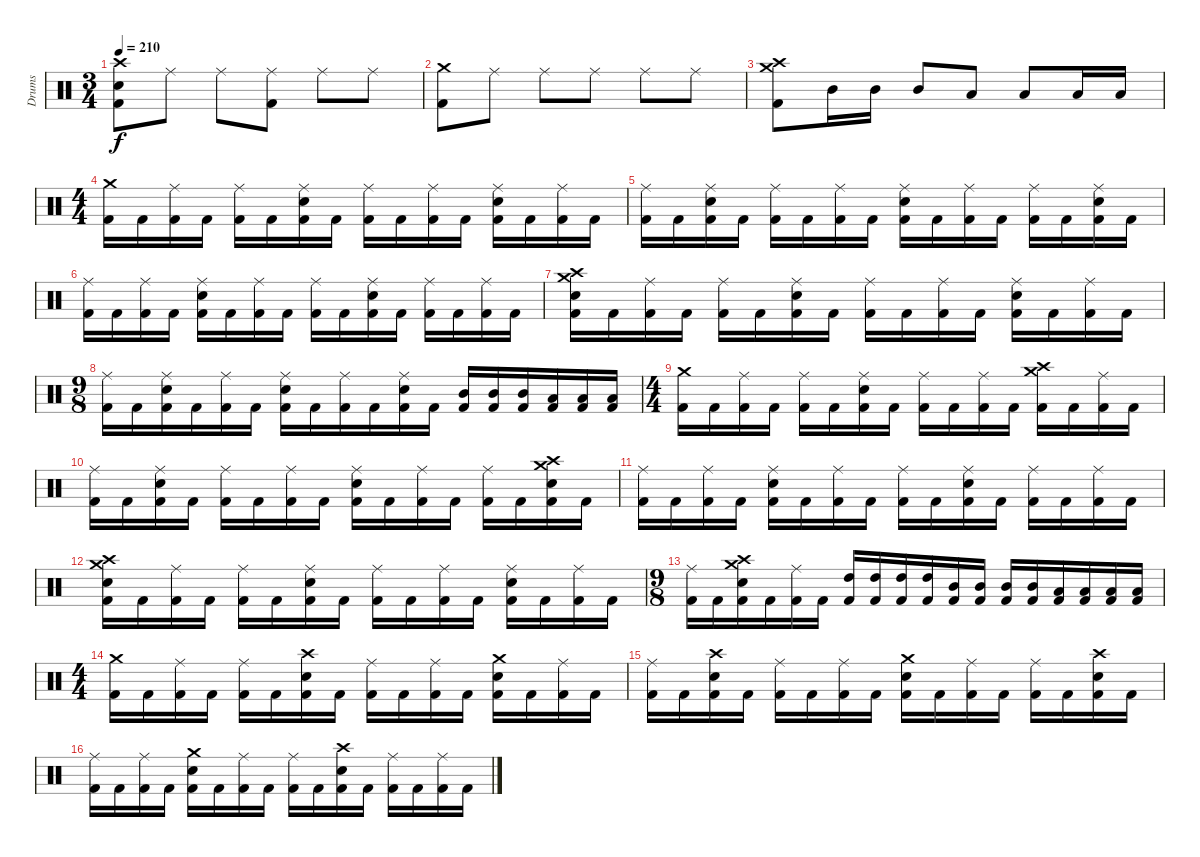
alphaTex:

\track ("Drums" "Drums") {instrument percussion}
\staff {score}
\articulation defaults
\ts (3 4)
\tempo 210
\clef neutral
\ks c
("Kick (hit) 2" "Electric Snare (hit)" "Crash high (hit)").8{dy f} "Ride (middle)".8 "Ride (middle)".8 ("Kick (hit) 2" "Ride (middle)").8 "Ride (middle)".8 "Ride (middle)".8 |
("Kick (hit) 2" "Crash medium (hit)").8 "Ride (middle)".8 "Ride (middle)".8 "Ride (middle)".8 "Ride (middle)".8 "Ride (middle)".8 |
("Kick (hit) 2" "Crash high (hit)" "Crash medium (hit)").8 "Mid Tom (hit)".16 "Mid Tom (hit)".16 "Mid Tom (hit)".8 "Low Tom (hit)".8 "Low Tom (hit)".8 "Low Tom (hit)".16 "Low Tom (hit)".16 |
\ts (4 4)
("Kick (hit) 2" "Crash medium (hit)").16 "Kick (hit) 2".16 ("Kick (hit) 2" "Ride (middle)").16 "Kick (hit) 2".16 ("Kick (hit) 2" "Ride (middle)").16 "Kick (hit) 2".16 ("Kick (hit) 2" "Electric Snare (hit)" "Ride (middle)").16 "Kick (hit) 2".16 ("Kick (hit) 2" "Ride (middle)").16 "Kick (hit) 2".16 ("Kick (hit) 2" "Ride (middle)").16 "Kick (hit) 2".16 ("Kick (hit) 2" "Electric Snare (hit)" "Ride (middle)").16 "Kick (hit) 2".16 ("Kick (hit) 2" "Ride (middle)").16 "Kick (hit) 2".16 |
("Kick (hit) 2" "Ride (middle)").16 "Kick (hit) 2".16 ("Kick (hit) 2" "Electric Snare (hit)" "Ride (middle)").16 "Kick (hit) 2".16 ("Kick (hit) 2" "Ride (middle)").16 "Kick (hit) 2".16 ("Kick (hit) 2" "Ride (middle)").16 "Kick (hit) 2".16 ("Kick (hit) 2" "Electric Snare (hit)" "Ride (middle)").16 "Kick (hit) 2".16 ("Kick (hit) 2" "Ride (middle)").16 "Kick (hit) 2".16 ("Kick (hit) 2" "Ride (middle)").16 "Kick (hit) 2".16 ("Kick (hit) 2" "Electric Snare (hit)" "Ride (middle)").16 "Kick (hit) 2".16 |
("Kick (hit) 2" "Ride (middle)").16 "Kick (hit) 2".16 ("Kick (hit) 2" "Ride (middle)").16 "Kick (hit) 2".16 ("Kick (hit) 2" "Electric Snare (hit)" "Ride (middle)").16 "Kick (hit) 2".16 ("Kick (hit) 2" "Ride (middle)").16 "Kick (hit) 2".16 ("Kick (hit) 2" "Ride (middle)").16 "Kick (hit) 2".16 ("Kick (hit) 2" "Electric Snare (hit)" "Ride (middle)").16 "Kick (hit) 2".16 ("Kick (hit) 2" "Ride (middle)").16 "Kick (hit) 2".16 ("Kick (hit) 2" "Ride (middle)").16 "Kick (hit) 2".16 |
("Kick (hit) 2" "Electric Snare (hit)" "Crash high (hit)" "Crash medium (hit)").16 "Kick (hit) 2".16 ("Kick (hit) 2" "Ride (middle)").16 "Kick (hit) 2".16 ("Kick (hit) 2" "Ride (middle)").16 "Kick (hit) 2".16 ("Kick (hit) 2" "Electric Snare (hit)" "Ride (middle)").16 "Kick (hit) 2".16 ("Kick (hit) 2" "Ride (middle)").16 "Kick (hit) 2".16 ("Kick (hit) 2" "Ride (middle)").16 "Kick (hit) 2".16 ("Kick (hit) 2" "Electric Snare (hit)" "Ride (middle)").16 "Kick (hit) 2".16 ("Kick (hit) 2" "Ride (middle)").16 "Kick (hit) 2".16 |
\ts (9 8)
("Kick (hit) 2" "Ride (middle)").16 "Kick (hit) 2".16 ("Kick (hit) 2" "Electric Snare (hit)" "Ride (middle)").16 "Kick (hit) 2".16 ("Kick (hit) 2" "Ride (middle)").16 "Kick (hit) 2".16 ("Kick (hit) 2" "Electric Snare (hit)" "Ride (middle)").16 "Kick (hit) 2".16 ("Kick (hit) 2" "Ride (middle)").16 "Kick (hit) 2".16 ("Kick (hit) 2" "Electric Snare (hit)" "Ride (middle)").16 "Kick (hit) 2".16 ("Kick (hit) 2" "Mid Tom (hit)").16 ("Kick (hit) 2" "Mid Tom (hit)").16 ("Kick (hit) 2" "Mid Tom (hit)").16 ("Kick (hit) 2" "Low Tom (hit)").16 ("Kick (hit) 2" "Low Tom (hit)").16 ("Kick (hit) 2" "Low Tom (hit)").16 |
\ts (4 4)
("Kick (hit) 2" "Crash medium (hit)").16 "Kick (hit) 2".16 ("Kick (hit) 2" "Ride (middle)").16 "Kick (hit) 2".16 ("Kick (hit) 2" "Ride (middle)").16 "Kick (hit) 2".16 ("Kick (hit) 2" "Electric Snare (hit)" "Ride (middle)").16 "Kick (hit) 2".16 ("Kick (hit) 2" "Ride (middle)").16 "Kick (hit) 2".16 ("Kick (hit) 2" "Ride (middle)").16 "Kick (hit) 2".16 ("Kick (hit) 2" "Crash high (hit)" "Crash medium (hit)").16 "Kick (hit) 2".16 ("Kick (hit) 2" "Ride (middle)").16 "Kick (hit) 2".16 |
("Kick (hit) 2" "Ride (middle)").16 "Kick (hit) 2".16 ("Kick (hit) 2" "Electric Snare (hit)" "Ride (middle)").16 "Kick (hit) 2".16 ("Kick (hit) 2" "Ride (middle)").16 "Kick (hit) 2".16 ("Kick (hit) 2" "Ride (middle)").16 "Kick (hit) 2".16 ("Kick (hit) 2" "Electric Snare (hit)" "Ride (middle)").16 "Kick (hit) 2".16 ("Kick (hit) 2" "Ride (middle)").16 "Kick (hit) 2".16 ("Kick (hit) 2" "Ride (middle)").16 "Kick (hit) 2".16 ("Kick (hit) 2" "Electric Snare (hit)" "Crash high (hit)" "Crash medium (hit)").16 "Kick (hit) 2".16 |
("Kick (hit) 2" "Ride (middle)").16 "Kick (hit) 2".16 ("Kick (hit) 2" "Ride (middle)").16 "Kick (hit) 2".16 ("Kick (hit) 2" "Electric Snare (hit)" "Ride (middle)").16 "Kick (hit) 2".16 ("Kick (hit) 2" "Ride (middle)").16 "Kick (hit) 2".16 ("Kick (hit) 2" "Ride (middle)").16 "Kick (hit) 2".16 ("Kick (hit) 2" "Electric Snare (hit)" "Ride (middle)").16 "Kick (hit) 2".16 ("Kick (hit) 2" "Ride (middle)").16 "Kick (hit) 2".16 ("Kick (hit) 2" "Ride (middle)").16 "Kick (hit) 2".16 |
("Kick (hit) 2" "Electric Snare (hit)" "Crash high (hit)" "Crash medium (hit)").16 "Kick (hit) 2".16 ("Kick (hit) 2" "Ride (middle)").16 "Kick (hit) 2".16 ("Kick (hit) 2" "Ride (middle)").16 "Kick (hit) 2".16 ("Kick (hit) 2" "Electric Snare (hit)" "Ride (middle)").16 "Kick (hit) 2".16 ("Kick (hit) 2" "Ride (middle)").16 "Kick (hit) 2".16 ("Kick (hit) 2" "Ride (middle)").16 "Kick (hit) 2".16 ("Kick (hit) 2" "Electric Snare (hit)" "Ride (middle)").16 "Kick (hit) 2".16 ("Kick (hit) 2" "Ride (middle)").16 "Kick (hit) 2".16 |
\ts (9 8)
("Kick (hit) 2" "Ride (middle)").16 "Kick (hit) 2".16 ("Kick (hit) 2" "Electric Snare (hit)" "Crash high (hit)" "Crash medium (hit)").16 "Kick (hit) 2".16 ("Kick (hit) 2" "Ride (middle)").16 "Kick (hit) 2".16 ("Kick (hit) 2" "High Tom (hit)").16 ("Kick (hit) 2" "High Tom (hit)").16 ("Kick (hit) 2" "High Tom (hit)").16 ("Kick (hit) 2" "High Tom (hit)").16 ("Kick (hit) 2" "Mid Tom (hit)").16 ("Kick (hit) 2" "Mid Tom (hit)").16 ("Kick (hit) 2" "Mid Tom (hit)").16 ("Kick (hit) 2" "Mid Tom (hit)").16 ("Kick (hit) 2" "Low Tom (hit)").16 ("Kick (hit) 2" "Low Tom (hit)").16 ("Kick (hit) 2" "Low Tom (hit)").16 ("Kick (hit) 2" "Low Tom (hit)").16 |
\ts (4 4)
("Kick (hit) 2" "Crash medium (hit)").16 "Kick (hit) 2".16 ("Kick (hit) 2" "Ride (middle)").16 "Kick (hit) 2".16 ("Kick (hit) 2" "Ride (middle)").16 "Kick (hit) 2".16 ("Kick (hit) 2" "Electric Snare (hit)" "Crash high (hit)").16 "Kick (hit) 2".16 ("Kick (hit) 2" "Ride (middle)").16 "Kick (hit) 2".16 ("Kick (hit) 2" "Ride (middle)").16 "Kick (hit) 2".16 ("Kick (hit) 2" "Electric Snare (hit)" "Crash medium (hit)").16 "Kick (hit) 2".16 ("Kick (hit) 2" "Ride (middle)").16 "Kick (hit) 2".16 |
("Kick (hit) 2" "Ride (middle)").16 "Kick (hit) 2".16 ("Kick (hit) 2" "Electric Snare (hit)" "Crash high (hit)").16 "Kick (hit) 2".16 ("Kick (hit) 2" "Ride (middle)").16 "Kick (hit) 2".16 ("Kick (hit) 2" "Ride (middle)").16 "Kick (hit) 2".16 ("Kick (hit) 2" "Electric Snare (hit)" "Crash medium (hit)").16 "Kick (hit) 2".16 ("Kick (hit) 2" "Ride (middle)").16 "Kick (hit) 2".16 ("Kick (hit) 2" "Ride (middle)").16 "Kick (hit) 2".16 ("Kick (hit) 2" "Electric Snare (hit)" "Crash high (hit)").16 "Kick (hit) 2".16 |
("Kick (hit) 2" "Ride (middle)").16 "Kick (hit) 2".16 ("Kick (hit) 2" "Ride (middle)").16 "Kick (hit) 2".16 ("Kick (hit) 2" "Electric Snare (hit)" "Crash medium (hit)").16 "Kick (hit) 2".16 ("Kick (hit) 2" "Ride (middle)").16 "Kick (hit) 2".16 ("Kick (hit) 2" "Ride (middle)").16 "Kick (hit) 2".16 ("Kick (hit) 2" "Electric Snare (hit)" "Crash high (hit)").16 "Kick (hit) 2".16 ("Kick (hit) 2" "Ride (middle)").16 "Kick (hit) 2".16 ("Kick (hit) 2" "Ride (middle)").16 "Kick (hit) 2".16
